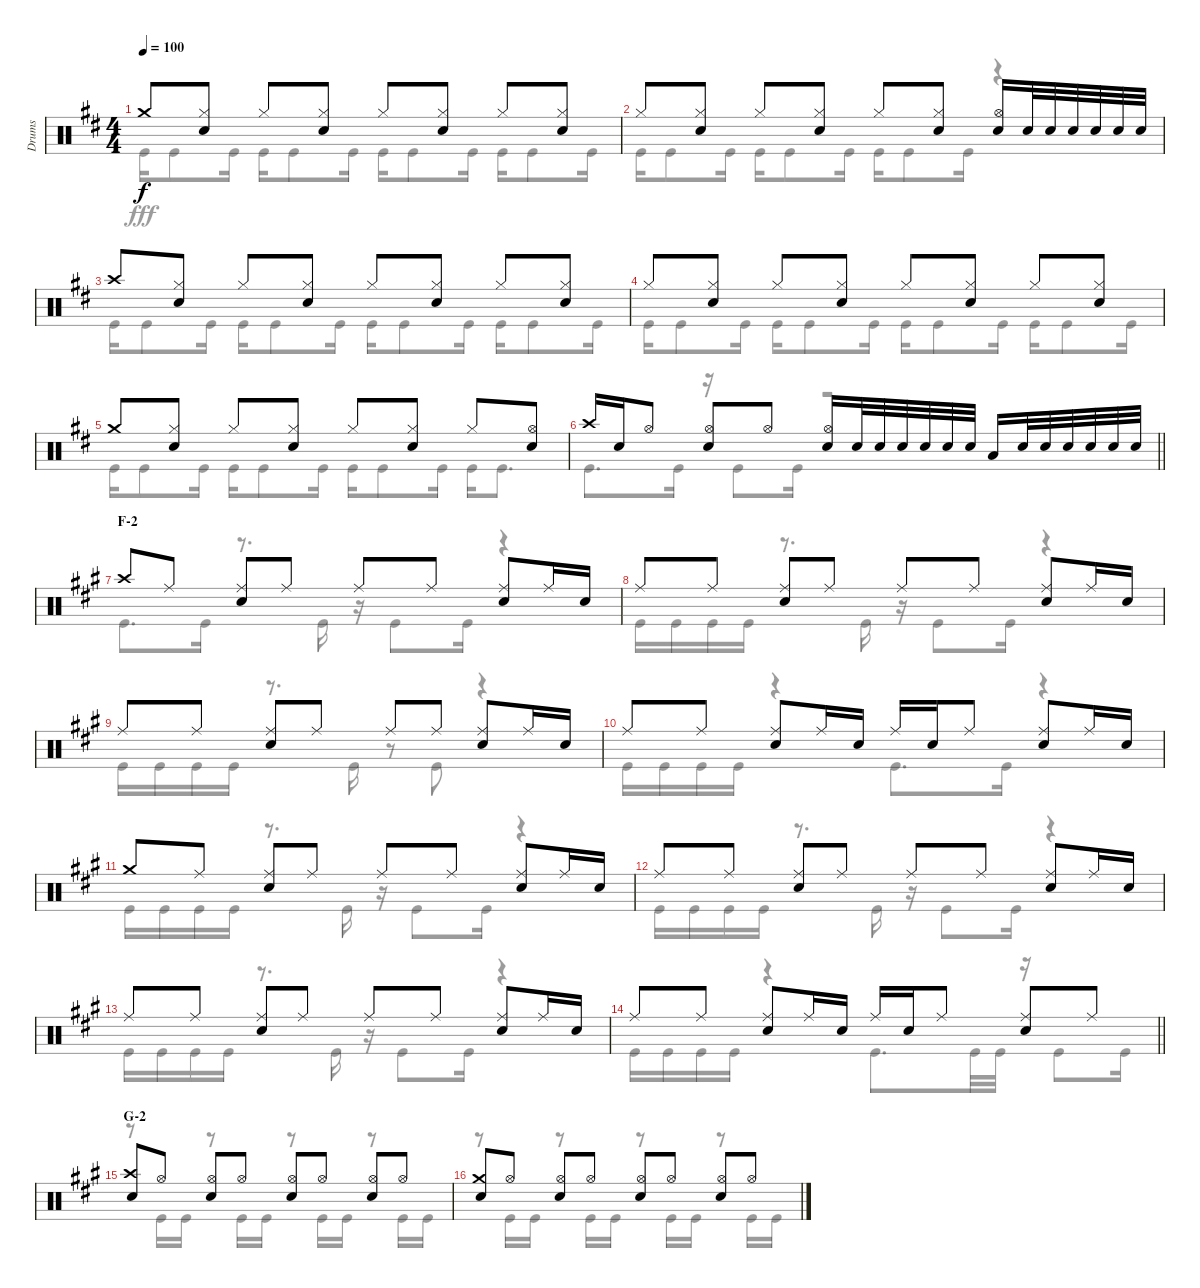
\track ("Drums" "Drums") {instrument percussion}
\staff {score}
\articulation defaults
\voice
\ts (4 4)
\tempo 100
\clef neutral
\ks d "Crash medium (hit)".8{dy f}
("Hi-Hat (closed)" "Snare (hit) 2").8 "Hi-Hat (closed)".8 ("Hi-Hat (closed)" "Snare (hit) 2").8 "Hi-Hat (closed)".8 ("Hi-Hat (closed)" "Snare (hit) 2").8 "Hi-Hat (closed)".8 ("Hi-Hat (closed)" "Snare (hit) 2").8 |
"Hi-Hat (closed)".8 ("Hi-Hat (closed)" "Snare (hit) 2").8 "Hi-Hat (closed)".8 ("Hi-Hat (closed)" "Snare (hit) 2").8 "Hi-Hat (closed)".8 ("Hi-Hat (closed)" "Snare (hit) 2").8 ("Hi-Hat (open)" "Snare (hit) 2").16 "Snare (hit) 2".32 "Snare (hit) 2".32 "Snare (hit) 2".32 "Snare (hit) 2".32 "Snare (hit) 2".32 "Snare (hit) 2".32 |
"Crash high (hit)".8 ("Hi-Hat (closed)" "Snare (hit) 2").8 "Hi-Hat (closed)".8 ("Hi-Hat (closed)" "Snare (hit) 2").8 "Hi-Hat (closed)".8 ("Hi-Hat (closed)" "Snare (hit) 2").8 "Hi-Hat (closed)".8 ("Hi-Hat (closed)" "Snare (hit) 2").8 |
"Hi-Hat (closed)".8 ("Hi-Hat (closed)" "Snare (hit) 2").8 "Hi-Hat (closed)".8 ("Hi-Hat (closed)" "Snare (hit) 2").8 "Hi-Hat (closed)".8 ("Hi-Hat (closed)" "Snare (hit) 2").8 "Hi-Hat (closed)".8 ("Hi-Hat (closed)" "Snare (hit) 2").8 |
"Crash medium (hit)".8 ("Hi-Hat (closed)" "Snare (hit) 2").8 "Hi-Hat (closed)".8 ("Hi-Hat (closed)" "Snare (hit) 2").8 "Hi-Hat (closed)".8 ("Hi-Hat (closed)" "Snare (hit) 2").8 "Hi-Hat (closed)".8 ("Hi-Hat (open)" "Snare (hit) 2").8 |
\barLineRight lightlight "Crash high (hit)".16 "Snare (hit) 2".16 "Hi-Hat (open)".8
("Hi-Hat (open)" "Snare (hit) 2").8 "Hi-Hat (open)".8 ("Hi-Hat (open)" "Snare (hit) 2").16 "Snare (hit) 2".32 "Snare (hit) 2".32 "Snare (hit) 2".32 "Snare (hit) 2".32 "Snare (hit) 2".32 "Snare (hit) 2".32 "Low Tom (hit)".16 "Snare (hit) 2".32 "Snare (hit) 2".32 "Snare (hit) 2".32 "Snare (hit) 2".32 "Snare (hit) 2".32 "Snare (hit) 2".32 |
\section ("" "F-2")
\ks a "Crash high (hit)".8 "Ride (middle)".8
("Ride (middle)" "Snare (hit) 2").8 "Ride (middle)".8 "Ride (middle)".8 "Ride (middle)".8 ("Ride (middle)" "Snare (hit) 2").8 "Ride (middle)".16 "Snare (hit) 2".16 |
"Ride (middle)".8 "Ride (middle)".8 ("Ride (middle)" "Snare (hit) 2").8 "Ride (middle)".8 "Ride (middle)".8 "Ride (middle)".8 ("Ride (middle)" "Snare (hit) 2").8 "Ride (middle)".16 "Snare (hit) 2".16 |
"Ride (middle)".8 "Ride (middle)".8 ("Ride (middle)" "Snare (hit) 2").8 "Ride (middle)".8 "Ride (middle)".8 "Ride (middle)".8 ("Ride (middle)" "Snare (hit) 2").8 "Ride (middle)".16 "Snare (hit) 2".16 |
"Ride (middle)".8 "Ride (middle)".8 ("Ride (middle)" "Snare (hit) 2").8 "Ride (middle)".16 "Snare (hit) 2".16 "Ride (middle)".16 "Snare (hit) 2".16 "Ride (middle)".8 ("Ride (middle)" "Snare (hit) 2").8 "Ride (middle)".16 "Snare (hit) 2".16 |
"Crash medium (hit)".8 "Ride (middle)".8 ("Ride (middle)" "Snare (hit) 2").8 "Ride (middle)".8 "Ride (middle)".8 "Ride (middle)".8 ("Ride (middle)" "Snare (hit) 2").8 "Ride (middle)".16 "Snare (hit) 2".16 |
"Ride (middle)".8 "Ride (middle)".8 ("Ride (middle)" "Snare (hit) 2").8 "Ride (middle)".8 "Ride (middle)".8 "Ride (middle)".8 ("Ride (middle)" "Snare (hit) 2").8 "Ride (middle)".16 "Snare (hit) 2".16 |
"Ride (middle)".8 "Ride (middle)".8 ("Ride (middle)" "Snare (hit) 2").8 "Ride (middle)".8 "Ride (middle)".8 "Ride (middle)".8 ("Ride (middle)" "Snare (hit) 2").8 "Ride (middle)".16 "Snare (hit) 2".16 |
\barLineRight lightlight "Ride (middle)".8 "Ride (middle)".8
("Ride (middle)" "Snare (hit) 2").8 "Ride (middle)".16 "Snare (hit) 2".16 "Ride (middle)".16 "Snare (hit) 2".16 "Ride (middle)".8 ("Ride (middle)" "Snare (hit) 2").8 "Ride (middle)".8 |
\section ("" "G-2")
("Crash high (hit)" "Snare (hit) 2").8 "Hi-Hat (open)".8 ("Hi-Hat (open)" "Snare (hit) 2").8 "Hi-Hat (open)".8 ("Hi-Hat (open)" "Snare (hit) 2").8 "Hi-Hat (open)".8 ("Hi-Hat (open)" "Snare (hit) 2").8 "Hi-Hat (open)".8 |
("Crash medium (hit)" "Snare (hit) 2").8 "Hi-Hat (open)".8 ("Hi-Hat (open)" "Snare (hit) 2").8 "Hi-Hat (open)".8 ("Hi-Hat (open)" "Snare (hit) 2").8 "Hi-Hat (open)".8 ("Hi-Hat (open)" "Snare (hit) 2").8 "Hi-Hat (open)".8
\voice
\clef neutral
\ottava regular
\simile none
\ks d "Kick (hit)".16{dy fff} "Kick (hit)".8 "Kick (hit)".16 "Kick (hit)".16 "Kick (hit)".8 "Kick (hit)".16 "Kick (hit)".16 "Kick (hit)".8 "Kick (hit)".16 "Kick (hit)".16 "Kick (hit)".8 "Kick (hit)".16
|
"Kick (hit)".16 "Kick (hit)".8 "Kick (hit)".16 "Kick (hit)".16 "Kick (hit)".8 "Kick (hit)".16 "Kick (hit)".16 "Kick (hit)".8 "Kick (hit)".16 r.4 |
"Kick (hit)".16 "Kick (hit)".8 "Kick (hit)".16 "Kick (hit)".16 "Kick (hit)".8 "Kick (hit)".16 "Kick (hit)".16 "Kick (hit)".8 "Kick (hit)".16 "Kick (hit)".16 "Kick (hit)".8 "Kick (hit)".16 |
"Kick (hit)".16 "Kick (hit)".8 "Kick (hit)".16 "Kick (hit)".16 "Kick (hit)".8 "Kick (hit)".16 "Kick (hit)".16 "Kick (hit)".8 "Kick (hit)".16 "Kick (hit)".16 "Kick (hit)".8 "Kick (hit)".16 |
"Kick (hit)".16 "Kick (hit)".8 "Kick (hit)".16 "Kick (hit)".16 "Kick (hit)".8 "Kick (hit)".16 "Kick (hit)".16 "Kick (hit)".8 "Kick (hit)".16 "Kick (hit)".16 "Kick (hit)".8{d} |
\barLineRight lightlight "Kick (hit)".8{d} "Kick (hit)".16
r.16 "Kick (hit)".8 "Kick (hit)".16 r.2 |
\ks a "Kick (hit)".8{d} "Kick (hit)".16
r.8{d} "Kick (hit)".16 r.16 "Kick (hit)".8 "Kick (hit)".16 r.4 |
"Kick (hit)".16 "Kick (hit)".16 "Kick (hit)".16 "Kick (hit)".16 r.8{d} "Kick (hit)".16 r.16 "Kick (hit)".8 "Kick (hit)".16 r.4 |
"Kick (hit)".16 "Kick (hit)".16 "Kick (hit)".16 "Kick (hit)".16 r.8{d} "Kick (hit)".16 r.8 "Kick (hit)".8 r.4 |
"Kick (hit)".16 "Kick (hit)".16 "Kick (hit)".16 "Kick (hit)".16 r.4 "Kick (hit)".8{d} "Kick (hit)".16 r.4 |
"Kick (hit)".16 "Kick (hit)".16 "Kick (hit)".16 "Kick (hit)".16 r.8{d} "Kick (hit)".16 r.16 "Kick (hit)".8 "Kick (hit)".16 r.4 |
"Kick (hit)".16 "Kick (hit)".16 "Kick (hit)".16 "Kick (hit)".16 r.8{d} "Kick (hit)".16 r.16 "Kick (hit)".8 "Kick (hit)".16 r.4 |
"Kick (hit)".16 "Kick (hit)".16 "Kick (hit)".16 "Kick (hit)".16 r.8{d} "Kick (hit)".16 r.16 "Kick (hit)".8 "Kick (hit)".16 r.4 |
\barLineRight lightlight "Kick (hit)".16 "Kick (hit)".16 "Kick (hit)".16 "Kick (hit)".16
r.4 "Kick (hit)".8{d} "Kick (hit)".32 "Kick (hit)".32 r.16 "Kick (hit)".8 "Kick (hit)".16 |
r.8 "Kick (hit)".16 "Kick (hit)".16 r.8 "Kick (hit)".16 "Kick (hit)".16 r.8 "Kick (hit)".16 "Kick (hit)".16 r.8 "Kick (hit)".16 "Kick (hit)".16 |
r.8 "Kick (hit)".16 "Kick (hit)".16 r.8 "Kick (hit)".16 "Kick (hit)".16 r.8 "Kick (hit)".16 "Kick (hit)".16 r.8 "Kick (hit)".16 "Kick (hit)".16
